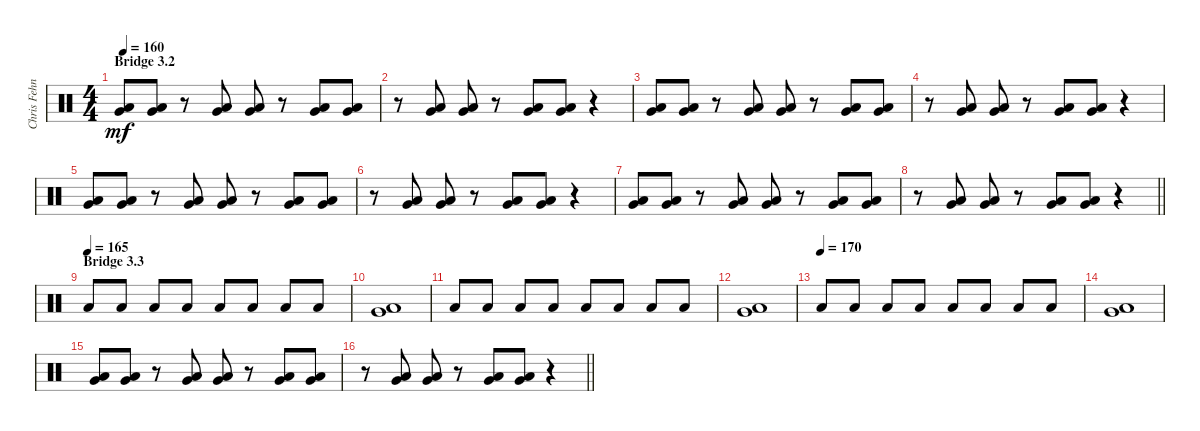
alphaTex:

\track ("Chris Fehn" "Chris Fehn") {instrument percussion}
\staff {score}
\articulation defaults
\ts (4 4)
\section ("" "Bridge 3.2")
\tempo 160
\clef neutral
\ks c
("Very Low Tom (hit)" "Low Floor Tom (hit)").8{dy mf} ("Very Low Tom (hit)" "Low Floor Tom (hit)").8 r.8 ("Very Low Tom (hit)" "Low Floor Tom (hit)").8 ("Very Low Tom (hit)" "Low Floor Tom (hit)").8 r.8 ("Very Low Tom (hit)" "Low Floor Tom (hit)").8 ("Very Low Tom (hit)" "Low Floor Tom (hit)").8 |
r.8 ("Very Low Tom (hit)" "Low Floor Tom (hit)").8 ("Very Low Tom (hit)" "Low Floor Tom (hit)").8 r.8 ("Very Low Tom (hit)" "Low Floor Tom (hit)").8 ("Very Low Tom (hit)" "Low Floor Tom (hit)").8 r.4 |
("Very Low Tom (hit)" "Low Floor Tom (hit)").8 ("Very Low Tom (hit)" "Low Floor Tom (hit)").8 r.8 ("Very Low Tom (hit)" "Low Floor Tom (hit)").8 ("Very Low Tom (hit)" "Low Floor Tom (hit)").8 r.8 ("Very Low Tom (hit)" "Low Floor Tom (hit)").8 ("Very Low Tom (hit)" "Low Floor Tom (hit)").8 |
r.8 ("Very Low Tom (hit)" "Low Floor Tom (hit)").8 ("Very Low Tom (hit)" "Low Floor Tom (hit)").8 r.8 ("Very Low Tom (hit)" "Low Floor Tom (hit)").8 ("Very Low Tom (hit)" "Low Floor Tom (hit)").8 r.4 |
("Very Low Tom (hit)" "Low Floor Tom (hit)").8 ("Very Low Tom (hit)" "Low Floor Tom (hit)").8 r.8 ("Very Low Tom (hit)" "Low Floor Tom (hit)").8 ("Very Low Tom (hit)" "Low Floor Tom (hit)").8 r.8 ("Very Low Tom (hit)" "Low Floor Tom (hit)").8 ("Very Low Tom (hit)" "Low Floor Tom (hit)").8 |
r.8 ("Very Low Tom (hit)" "Low Floor Tom (hit)").8 ("Very Low Tom (hit)" "Low Floor Tom (hit)").8 r.8 ("Very Low Tom (hit)" "Low Floor Tom (hit)").8 ("Very Low Tom (hit)" "Low Floor Tom (hit)").8 r.4 |
("Very Low Tom (hit)" "Low Floor Tom (hit)").8 ("Very Low Tom (hit)" "Low Floor Tom (hit)").8 r.8 ("Very Low Tom (hit)" "Low Floor Tom (hit)").8 ("Very Low Tom (hit)" "Low Floor Tom (hit)").8 r.8 ("Very Low Tom (hit)" "Low Floor Tom (hit)").8 ("Very Low Tom (hit)" "Low Floor Tom (hit)").8 |
\barLineRight lightlight
r.8 ("Very Low Tom (hit)" "Low Floor Tom (hit)").8 ("Very Low Tom (hit)" "Low Floor Tom (hit)").8 r.8 ("Very Low Tom (hit)" "Low Floor Tom (hit)").8 ("Very Low Tom (hit)" "Low Floor Tom (hit)").8 r.4 |
\section ("" "Bridge 3.3")
\tempo (165)
"Low Floor Tom (hit)".8 "Low Floor Tom (hit)".8 "Low Floor Tom (hit)".8 "Low Floor Tom (hit)".8 "Low Floor Tom (hit)".8 "Low Floor Tom (hit)".8 "Low Floor Tom (hit)".8 "Low Floor Tom (hit)".8 |
("Very Low Tom (hit)" "Low Floor Tom (hit)").1 |
"Low Floor Tom (hit)".8 "Low Floor Tom (hit)".8 "Low Floor Tom (hit)".8 "Low Floor Tom (hit)".8 "Low Floor Tom (hit)".8 "Low Floor Tom (hit)".8 "Low Floor Tom (hit)".8 "Low Floor Tom (hit)".8 |
("Very Low Tom (hit)" "Low Floor Tom (hit)").1 |
\tempo (170)
"Low Floor Tom (hit)".8 "Low Floor Tom (hit)".8 "Low Floor Tom (hit)".8 "Low Floor Tom (hit)".8 "Low Floor Tom (hit)".8 "Low Floor Tom (hit)".8 "Low Floor Tom (hit)".8 "Low Floor Tom (hit)".8 |
("Very Low Tom (hit)" "Low Floor Tom (hit)").1 |
("Very Low Tom (hit)" "Low Floor Tom (hit)").8 ("Very Low Tom (hit)" "Low Floor Tom (hit)").8 r.8 ("Very Low Tom (hit)" "Low Floor Tom (hit)").8 ("Very Low Tom (hit)" "Low Floor Tom (hit)").8 r.8 ("Very Low Tom (hit)" "Low Floor Tom (hit)").8 ("Very Low Tom (hit)" "Low Floor Tom (hit)").8 |
\barLineRight lightlight
r.8 ("Very Low Tom (hit)" "Low Floor Tom (hit)").8 ("Very Low Tom (hit)" "Low Floor Tom (hit)").8 r.8 ("Very Low Tom (hit)" "Low Floor Tom (hit)").8 ("Very Low Tom (hit)" "Low Floor Tom (hit)").8 r.4
